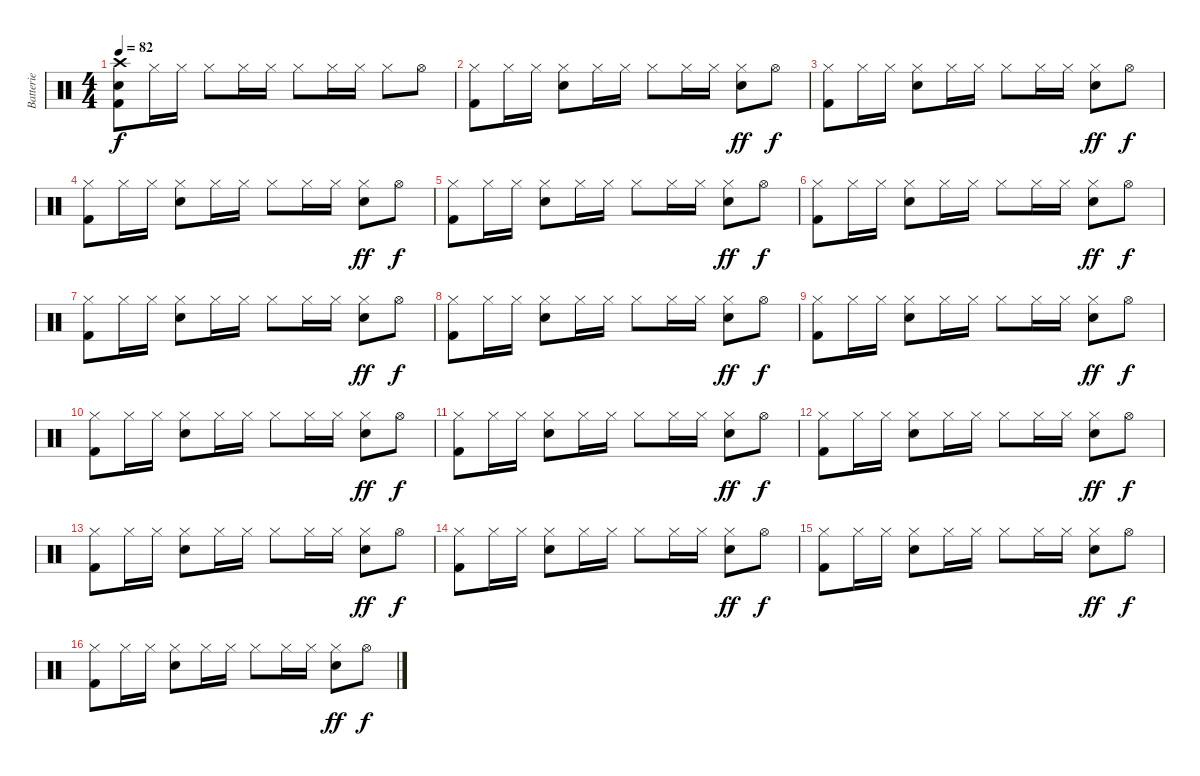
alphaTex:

\track ("Batterie" "Batterie") {instrument percussion}
\staff {score}
\articulation defaults
\ts (4 4)
\tempo 82
\clef neutral
\ks c
("Crash high (hit)" "Electric Snare (hit)" "Kick (hit) 2").8{dy f} "Hi-Hat (closed)".16 "Hi-Hat (closed)".16 "Hi-Hat (closed)".8 "Hi-Hat (closed)".16 "Hi-Hat (closed)".16 "Hi-Hat (closed)".8 "Hi-Hat (closed)".16 "Hi-Hat (closed)".16 "Hi-Hat (closed)".8 "Hi-Hat (open)".8 |
("Hi-Hat (closed)" "Kick (hit) 2").8 "Hi-Hat (closed)".16 "Hi-Hat (closed)".16 ("Hi-Hat (closed)" "Electric Snare (hit)").8 "Hi-Hat (closed)".16 "Hi-Hat (closed)".16 "Hi-Hat (closed)".8 "Hi-Hat (closed)".16 "Hi-Hat (closed)".16 ("Hi-Hat (closed)" "Electric Snare (hit)").8{dy ff} "Hi-Hat (open)".8{dy f} |
("Hi-Hat (closed)" "Kick (hit) 2").8 "Hi-Hat (closed)".16 "Hi-Hat (closed)".16 ("Hi-Hat (closed)" "Electric Snare (hit)").8 "Hi-Hat (closed)".16 "Hi-Hat (closed)".16 "Hi-Hat (closed)".8 "Hi-Hat (closed)".16 "Hi-Hat (closed)".16 ("Hi-Hat (closed)" "Electric Snare (hit)").8{dy ff} "Hi-Hat (open)".8{dy f} |
("Hi-Hat (closed)" "Kick (hit) 2").8 "Hi-Hat (closed)".16 "Hi-Hat (closed)".16 ("Hi-Hat (closed)" "Electric Snare (hit)").8 "Hi-Hat (closed)".16 "Hi-Hat (closed)".16 "Hi-Hat (closed)".8 "Hi-Hat (closed)".16 "Hi-Hat (closed)".16 ("Hi-Hat (closed)" "Electric Snare (hit)").8{dy ff} "Hi-Hat (open)".8{dy f} |
("Hi-Hat (closed)" "Kick (hit) 2").8 "Hi-Hat (closed)".16 "Hi-Hat (closed)".16 ("Hi-Hat (closed)" "Electric Snare (hit)").8 "Hi-Hat (closed)".16 "Hi-Hat (closed)".16 "Hi-Hat (closed)".8 "Hi-Hat (closed)".16 "Hi-Hat (closed)".16 ("Hi-Hat (closed)" "Electric Snare (hit)").8{dy ff} "Hi-Hat (open)".8{dy f} |
("Hi-Hat (closed)" "Kick (hit) 2").8 "Hi-Hat (closed)".16 "Hi-Hat (closed)".16 ("Hi-Hat (closed)" "Electric Snare (hit)").8 "Hi-Hat (closed)".16 "Hi-Hat (closed)".16 "Hi-Hat (closed)".8 "Hi-Hat (closed)".16 "Hi-Hat (closed)".16 ("Hi-Hat (closed)" "Electric Snare (hit)").8{dy ff} "Hi-Hat (open)".8{dy f} |
("Hi-Hat (closed)" "Kick (hit) 2").8 "Hi-Hat (closed)".16 "Hi-Hat (closed)".16 ("Hi-Hat (closed)" "Electric Snare (hit)").8 "Hi-Hat (closed)".16 "Hi-Hat (closed)".16 "Hi-Hat (closed)".8 "Hi-Hat (closed)".16 "Hi-Hat (closed)".16 ("Hi-Hat (closed)" "Electric Snare (hit)").8{dy ff} "Hi-Hat (open)".8{dy f} |
("Hi-Hat (closed)" "Kick (hit) 2").8 "Hi-Hat (closed)".16 "Hi-Hat (closed)".16 ("Hi-Hat (closed)" "Electric Snare (hit)").8 "Hi-Hat (closed)".16 "Hi-Hat (closed)".16 "Hi-Hat (closed)".8 "Hi-Hat (closed)".16 "Hi-Hat (closed)".16 ("Hi-Hat (closed)" "Electric Snare (hit)").8{dy ff} "Hi-Hat (open)".8{dy f} |
("Hi-Hat (closed)" "Kick (hit) 2").8 "Hi-Hat (closed)".16 "Hi-Hat (closed)".16 ("Hi-Hat (closed)" "Electric Snare (hit)").8 "Hi-Hat (closed)".16 "Hi-Hat (closed)".16 "Hi-Hat (closed)".8 "Hi-Hat (closed)".16 "Hi-Hat (closed)".16 ("Hi-Hat (closed)" "Electric Snare (hit)").8{dy ff} "Hi-Hat (open)".8{dy f} |
("Hi-Hat (closed)" "Kick (hit) 2").8 "Hi-Hat (closed)".16 "Hi-Hat (closed)".16 ("Hi-Hat (closed)" "Electric Snare (hit)").8 "Hi-Hat (closed)".16 "Hi-Hat (closed)".16 "Hi-Hat (closed)".8 "Hi-Hat (closed)".16 "Hi-Hat (closed)".16 ("Hi-Hat (closed)" "Electric Snare (hit)").8{dy ff} "Hi-Hat (open)".8{dy f} |
("Hi-Hat (closed)" "Kick (hit) 2").8 "Hi-Hat (closed)".16 "Hi-Hat (closed)".16 ("Hi-Hat (closed)" "Electric Snare (hit)").8 "Hi-Hat (closed)".16 "Hi-Hat (closed)".16 "Hi-Hat (closed)".8 "Hi-Hat (closed)".16 "Hi-Hat (closed)".16 ("Hi-Hat (closed)" "Electric Snare (hit)").8{dy ff} "Hi-Hat (open)".8{dy f} |
("Hi-Hat (closed)" "Kick (hit) 2").8 "Hi-Hat (closed)".16 "Hi-Hat (closed)".16 ("Hi-Hat (closed)" "Electric Snare (hit)").8 "Hi-Hat (closed)".16 "Hi-Hat (closed)".16 "Hi-Hat (closed)".8 "Hi-Hat (closed)".16 "Hi-Hat (closed)".16 ("Hi-Hat (closed)" "Electric Snare (hit)").8{dy ff} "Hi-Hat (open)".8{dy f} |
("Hi-Hat (closed)" "Kick (hit) 2").8 "Hi-Hat (closed)".16 "Hi-Hat (closed)".16 ("Hi-Hat (closed)" "Electric Snare (hit)").8 "Hi-Hat (closed)".16 "Hi-Hat (closed)".16 "Hi-Hat (closed)".8 "Hi-Hat (closed)".16 "Hi-Hat (closed)".16 ("Hi-Hat (closed)" "Electric Snare (hit)").8{dy ff} "Hi-Hat (open)".8{dy f} |
("Hi-Hat (closed)" "Kick (hit) 2").8 "Hi-Hat (closed)".16 "Hi-Hat (closed)".16 ("Hi-Hat (closed)" "Electric Snare (hit)").8 "Hi-Hat (closed)".16 "Hi-Hat (closed)".16 "Hi-Hat (closed)".8 "Hi-Hat (closed)".16 "Hi-Hat (closed)".16 ("Hi-Hat (closed)" "Electric Snare (hit)").8{dy ff} "Hi-Hat (open)".8{dy f} |
("Hi-Hat (closed)" "Kick (hit) 2").8 "Hi-Hat (closed)".16 "Hi-Hat (closed)".16 ("Hi-Hat (closed)" "Electric Snare (hit)").8 "Hi-Hat (closed)".16 "Hi-Hat (closed)".16 "Hi-Hat (closed)".8 "Hi-Hat (closed)".16 "Hi-Hat (closed)".16 ("Hi-Hat (closed)" "Electric Snare (hit)").8{dy ff} "Hi-Hat (open)".8{dy f} |
("Hi-Hat (closed)" "Kick (hit) 2").8 "Hi-Hat (closed)".16 "Hi-Hat (closed)".16 ("Hi-Hat (closed)" "Electric Snare (hit)").8 "Hi-Hat (closed)".16 "Hi-Hat (closed)".16 "Hi-Hat (closed)".8 "Hi-Hat (closed)".16 "Hi-Hat (closed)".16 ("Hi-Hat (closed)" "Electric Snare (hit)").8{dy ff} "Hi-Hat (open)".8{dy f}
